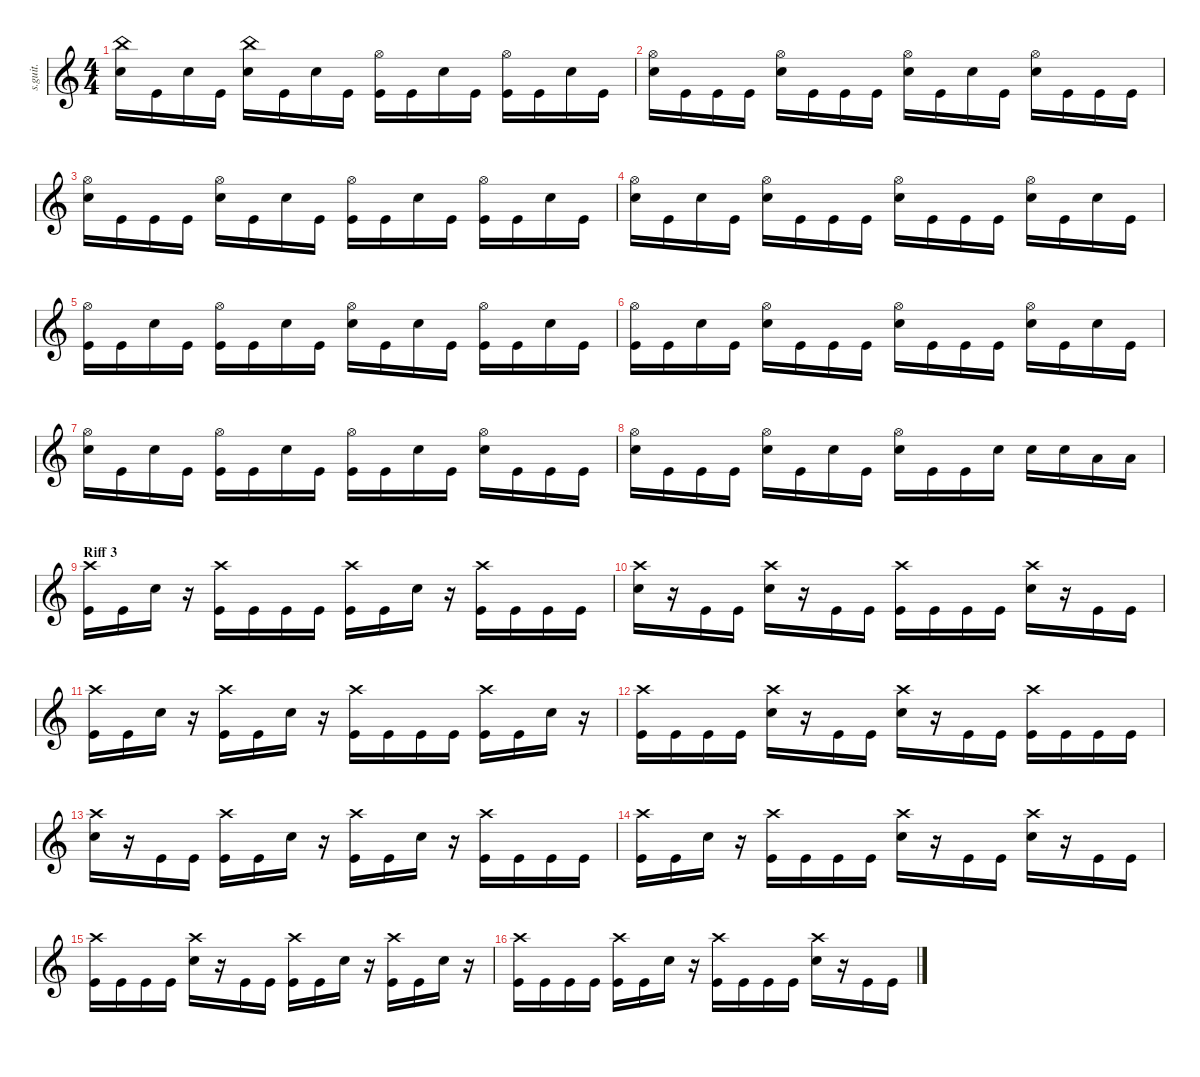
\defaultSystemsLayout 4
\hideDynamics
\bracketExtendMode nobrackets
\track ("Drumkit" "s.guit.") {instrument percussion}
\staff {score}
\articulation defaults
\ts (4 4)
\tempo (133 hide)
\clef g2
\ks c
("China (hit)" "Snare (hit) 2").16{lyrics (0 "") lyrics (1 "") lyrics (2 "") lyrics (3 "") lyrics (4 "") dy f} "Kick (hit)".16{lyrics (0 "") lyrics (1 "") lyrics (2 "") lyrics (3 "") lyrics (4 "")} "Snare (hit) 2".16{lyrics (0 "") lyrics (1 "") lyrics (2 "") lyrics (3 "") lyrics (4 "")} "Kick (hit)".16{lyrics (0 "") lyrics (1 "") lyrics (2 "") lyrics (3 "") lyrics (4 "")} ("China (hit)" "Snare (hit) 2").16{lyrics (0 "") lyrics (1 "") lyrics (2 "") lyrics (3 "") lyrics (4 "")} "Kick (hit)".16{lyrics (0 "") lyrics (1 "") lyrics (2 "") lyrics (3 "") lyrics (4 "")} "Snare (hit) 2".16{lyrics (0 "") lyrics (1 "") lyrics (2 "") lyrics (3 "") lyrics (4 "")} "Kick (hit)".16{lyrics (0 "") lyrics (1 "") lyrics (2 "") lyrics (3 "") lyrics (4 "")} ("Hi-Hat (open)" "Kick (hit)").16{lyrics (0 "") lyrics (1 "") lyrics (2 "") lyrics (3 "") lyrics (4 "")} "Kick (hit)".16{lyrics (0 "") lyrics (1 "") lyrics (2 "") lyrics (3 "") lyrics (4 "")} "Snare (hit) 2".16{lyrics (0 "") lyrics (1 "") lyrics (2 "") lyrics (3 "") lyrics (4 "")} "Kick (hit)".16{lyrics (0 "") lyrics (1 "") lyrics (2 "") lyrics (3 "") lyrics (4 "")} ("Hi-Hat (open)" "Kick (hit)").16{lyrics (0 "") lyrics (1 "") lyrics (2 "") lyrics (3 "") lyrics (4 "")} "Kick (hit)".16{lyrics (0 "") lyrics (1 "") lyrics (2 "") lyrics (3 "") lyrics (4 "")} "Snare (hit) 2".16{lyrics (0 "") lyrics (1 "") lyrics (2 "") lyrics (3 "") lyrics (4 "")} "Kick (hit)".16{lyrics (0 "") lyrics (1 "") lyrics (2 "") lyrics (3 "") lyrics (4 "")} |
("Hi-Hat (open)" "Snare (hit) 2").16{lyrics (0 "") lyrics (1 "") lyrics (2 "") lyrics (3 "") lyrics (4 "")} "Kick (hit)".16{lyrics (0 "") lyrics (1 "") lyrics (2 "") lyrics (3 "") lyrics (4 "")} "Kick (hit)".16{lyrics (0 "") lyrics (1 "") lyrics (2 "") lyrics (3 "") lyrics (4 "")} "Kick (hit)".16{lyrics (0 "") lyrics (1 "") lyrics (2 "") lyrics (3 "") lyrics (4 "")} ("Hi-Hat (open)" "Snare (hit) 2").16{lyrics (0 "") lyrics (1 "") lyrics (2 "") lyrics (3 "") lyrics (4 "")} "Kick (hit)".16{lyrics (0 "") lyrics (1 "") lyrics (2 "") lyrics (3 "") lyrics (4 "")} "Kick (hit)".16{lyrics (0 "") lyrics (1 "") lyrics (2 "") lyrics (3 "") lyrics (4 "")} "Kick (hit)".16{lyrics (0 "") lyrics (1 "") lyrics (2 "") lyrics (3 "") lyrics (4 "")} ("Hi-Hat (open)" "Snare (hit) 2").16{lyrics (0 "") lyrics (1 "") lyrics (2 "") lyrics (3 "") lyrics (4 "")} "Kick (hit)".16{lyrics (0 "") lyrics (1 "") lyrics (2 "") lyrics (3 "") lyrics (4 "")} "Snare (hit) 2".16{lyrics (0 "") lyrics (1 "") lyrics (2 "") lyrics (3 "") lyrics (4 "")} "Kick (hit)".16{lyrics (0 "") lyrics (1 "") lyrics (2 "") lyrics (3 "") lyrics (4 "")} ("Hi-Hat (open)" "Snare (hit) 2").16{lyrics (0 "") lyrics (1 "") lyrics (2 "") lyrics (3 "") lyrics (4 "")} "Kick (hit)".16{lyrics (0 "") lyrics (1 "") lyrics (2 "") lyrics (3 "") lyrics (4 "")} "Kick (hit)".16{lyrics (0 "") lyrics (1 "") lyrics (2 "") lyrics (3 "") lyrics (4 "")} "Kick (hit)".16{lyrics (0 "") lyrics (1 "") lyrics (2 "") lyrics (3 "") lyrics (4 "")} |
("Hi-Hat (open)" "Snare (hit) 2").16{lyrics (0 "") lyrics (1 "") lyrics (2 "") lyrics (3 "") lyrics (4 "")} "Kick (hit)".16{lyrics (0 "") lyrics (1 "") lyrics (2 "") lyrics (3 "") lyrics (4 "")} "Kick (hit)".16{lyrics (0 "") lyrics (1 "") lyrics (2 "") lyrics (3 "") lyrics (4 "")} "Kick (hit)".16{lyrics (0 "") lyrics (1 "") lyrics (2 "") lyrics (3 "") lyrics (4 "")} ("Hi-Hat (open)" "Snare (hit) 2").16{lyrics (0 "") lyrics (1 "") lyrics (2 "") lyrics (3 "") lyrics (4 "")} "Kick (hit)".16{lyrics (0 "") lyrics (1 "") lyrics (2 "") lyrics (3 "") lyrics (4 "")} "Snare (hit) 2".16{lyrics (0 "") lyrics (1 "") lyrics (2 "") lyrics (3 "") lyrics (4 "")} "Kick (hit)".16{lyrics (0 "") lyrics (1 "") lyrics (2 "") lyrics (3 "") lyrics (4 "")} ("Hi-Hat (open)" "Kick (hit)").16{lyrics (0 "") lyrics (1 "") lyrics (2 "") lyrics (3 "") lyrics (4 "")} "Kick (hit)".16{lyrics (0 "") lyrics (1 "") lyrics (2 "") lyrics (3 "") lyrics (4 "")} "Snare (hit) 2".16{lyrics (0 "") lyrics (1 "") lyrics (2 "") lyrics (3 "") lyrics (4 "")} "Kick (hit)".16{lyrics (0 "") lyrics (1 "") lyrics (2 "") lyrics (3 "") lyrics (4 "")} ("Hi-Hat (open)" "Kick (hit)").16{lyrics (0 "") lyrics (1 "") lyrics (2 "") lyrics (3 "") lyrics (4 "")} "Kick (hit)".16{lyrics (0 "") lyrics (1 "") lyrics (2 "") lyrics (3 "") lyrics (4 "")} "Snare (hit) 2".16{lyrics (0 "") lyrics (1 "") lyrics (2 "") lyrics (3 "") lyrics (4 "")} "Kick (hit)".16{lyrics (0 "") lyrics (1 "") lyrics (2 "") lyrics (3 "") lyrics (4 "")} |
("Hi-Hat (open)" "Snare (hit) 2").16{lyrics (0 "") lyrics (1 "") lyrics (2 "") lyrics (3 "") lyrics (4 "")} "Kick (hit)".16{lyrics (0 "") lyrics (1 "") lyrics (2 "") lyrics (3 "") lyrics (4 "")} "Snare (hit) 2".16{lyrics (0 "") lyrics (1 "") lyrics (2 "") lyrics (3 "") lyrics (4 "")} "Kick (hit)".16{lyrics (0 "") lyrics (1 "") lyrics (2 "") lyrics (3 "") lyrics (4 "")} ("Hi-Hat (open)" "Snare (hit) 2").16{lyrics (0 "") lyrics (1 "") lyrics (2 "") lyrics (3 "") lyrics (4 "")} "Kick (hit)".16{lyrics (0 "") lyrics (1 "") lyrics (2 "") lyrics (3 "") lyrics (4 "")} "Kick (hit)".16{lyrics (0 "") lyrics (1 "") lyrics (2 "") lyrics (3 "") lyrics (4 "")} "Kick (hit)".16{lyrics (0 "") lyrics (1 "") lyrics (2 "") lyrics (3 "") lyrics (4 "")} ("Hi-Hat (open)" "Snare (hit) 2").16{lyrics (0 "") lyrics (1 "") lyrics (2 "") lyrics (3 "") lyrics (4 "")} "Kick (hit)".16{lyrics (0 "") lyrics (1 "") lyrics (2 "") lyrics (3 "") lyrics (4 "")} "Kick (hit)".16{lyrics (0 "") lyrics (1 "") lyrics (2 "") lyrics (3 "") lyrics (4 "")} "Kick (hit)".16{lyrics (0 "") lyrics (1 "") lyrics (2 "") lyrics (3 "") lyrics (4 "")} ("Hi-Hat (open)" "Snare (hit) 2").16{lyrics (0 "") lyrics (1 "") lyrics (2 "") lyrics (3 "") lyrics (4 "")} "Kick (hit)".16{lyrics (0 "") lyrics (1 "") lyrics (2 "") lyrics (3 "") lyrics (4 "")} "Snare (hit) 2".16{lyrics (0 "") lyrics (1 "") lyrics (2 "") lyrics (3 "") lyrics (4 "")} "Kick (hit)".16{lyrics (0 "") lyrics (1 "") lyrics (2 "") lyrics (3 "") lyrics (4 "")} |
("Hi-Hat (open)" "Kick (hit)").16{lyrics (0 "") lyrics (1 "") lyrics (2 "") lyrics (3 "") lyrics (4 "")} "Kick (hit)".16{lyrics (0 "") lyrics (1 "") lyrics (2 "") lyrics (3 "") lyrics (4 "")} "Snare (hit) 2".16{lyrics (0 "") lyrics (1 "") lyrics (2 "") lyrics (3 "") lyrics (4 "")} "Kick (hit)".16{lyrics (0 "") lyrics (1 "") lyrics (2 "") lyrics (3 "") lyrics (4 "")} ("Hi-Hat (open)" "Kick (hit)").16{lyrics (0 "") lyrics (1 "") lyrics (2 "") lyrics (3 "") lyrics (4 "")} "Kick (hit)".16{lyrics (0 "") lyrics (1 "") lyrics (2 "") lyrics (3 "") lyrics (4 "")} "Snare (hit) 2".16{lyrics (0 "") lyrics (1 "") lyrics (2 "") lyrics (3 "") lyrics (4 "")} "Kick (hit)".16{lyrics (0 "") lyrics (1 "") lyrics (2 "") lyrics (3 "") lyrics (4 "")} ("Hi-Hat (open)" "Snare (hit) 2").16{lyrics (0 "") lyrics (1 "") lyrics (2 "") lyrics (3 "") lyrics (4 "")} "Kick (hit)".16{lyrics (0 "") lyrics (1 "") lyrics (2 "") lyrics (3 "") lyrics (4 "")} "Snare (hit) 2".16{lyrics (0 "") lyrics (1 "") lyrics (2 "") lyrics (3 "") lyrics (4 "")} "Kick (hit)".16{lyrics (0 "") lyrics (1 "") lyrics (2 "") lyrics (3 "") lyrics (4 "")} ("Hi-Hat (open)" "Kick (hit)").16{lyrics (0 "") lyrics (1 "") lyrics (2 "") lyrics (3 "") lyrics (4 "")} "Kick (hit)".16{lyrics (0 "") lyrics (1 "") lyrics (2 "") lyrics (3 "") lyrics (4 "")} "Snare (hit) 2".16{lyrics (0 "") lyrics (1 "") lyrics (2 "") lyrics (3 "") lyrics (4 "")} "Kick (hit)".16{lyrics (0 "") lyrics (1 "") lyrics (2 "") lyrics (3 "") lyrics (4 "")} |
("Hi-Hat (open)" "Kick (hit)").16{lyrics (0 "") lyrics (1 "") lyrics (2 "") lyrics (3 "") lyrics (4 "")} "Kick (hit)".16{lyrics (0 "") lyrics (1 "") lyrics (2 "") lyrics (3 "") lyrics (4 "")} "Snare (hit) 2".16{lyrics (0 "") lyrics (1 "") lyrics (2 "") lyrics (3 "") lyrics (4 "")} "Kick (hit)".16{lyrics (0 "") lyrics (1 "") lyrics (2 "") lyrics (3 "") lyrics (4 "")} ("Hi-Hat (open)" "Snare (hit) 2").16{lyrics (0 "") lyrics (1 "") lyrics (2 "") lyrics (3 "") lyrics (4 "")} "Kick (hit)".16{lyrics (0 "") lyrics (1 "") lyrics (2 "") lyrics (3 "") lyrics (4 "")} "Kick (hit)".16{lyrics (0 "") lyrics (1 "") lyrics (2 "") lyrics (3 "") lyrics (4 "")} "Kick (hit)".16{lyrics (0 "") lyrics (1 "") lyrics (2 "") lyrics (3 "") lyrics (4 "")} ("Hi-Hat (open)" "Snare (hit) 2").16{lyrics (0 "") lyrics (1 "") lyrics (2 "") lyrics (3 "") lyrics (4 "")} "Kick (hit)".16{lyrics (0 "") lyrics (1 "") lyrics (2 "") lyrics (3 "") lyrics (4 "")} "Kick (hit)".16{lyrics (0 "") lyrics (1 "") lyrics (2 "") lyrics (3 "") lyrics (4 "")} "Kick (hit)".16{lyrics (0 "") lyrics (1 "") lyrics (2 "") lyrics (3 "") lyrics (4 "")} ("Hi-Hat (open)" "Snare (hit) 2").16{lyrics (0 "") lyrics (1 "") lyrics (2 "") lyrics (3 "") lyrics (4 "")} "Kick (hit)".16{lyrics (0 "") lyrics (1 "") lyrics (2 "") lyrics (3 "") lyrics (4 "")} "Snare (hit) 2".16{lyrics (0 "") lyrics (1 "") lyrics (2 "") lyrics (3 "") lyrics (4 "")} "Kick (hit)".16{lyrics (0 "") lyrics (1 "") lyrics (2 "") lyrics (3 "") lyrics (4 "")} |
("Hi-Hat (open)" "Snare (hit) 2").16{lyrics (0 "") lyrics (1 "") lyrics (2 "") lyrics (3 "") lyrics (4 "")} "Kick (hit)".16{lyrics (0 "") lyrics (1 "") lyrics (2 "") lyrics (3 "") lyrics (4 "")} "Snare (hit) 2".16{lyrics (0 "") lyrics (1 "") lyrics (2 "") lyrics (3 "") lyrics (4 "")} "Kick (hit)".16{lyrics (0 "") lyrics (1 "") lyrics (2 "") lyrics (3 "") lyrics (4 "")} ("Hi-Hat (open)" "Kick (hit)").16{lyrics (0 "") lyrics (1 "") lyrics (2 "") lyrics (3 "") lyrics (4 "")} "Kick (hit)".16{lyrics (0 "") lyrics (1 "") lyrics (2 "") lyrics (3 "") lyrics (4 "")} "Snare (hit) 2".16{lyrics (0 "") lyrics (1 "") lyrics (2 "") lyrics (3 "") lyrics (4 "")} "Kick (hit)".16{lyrics (0 "") lyrics (1 "") lyrics (2 "") lyrics (3 "") lyrics (4 "")} ("Hi-Hat (open)" "Kick (hit)").16{lyrics (0 "") lyrics (1 "") lyrics (2 "") lyrics (3 "") lyrics (4 "")} "Kick (hit)".16{lyrics (0 "") lyrics (1 "") lyrics (2 "") lyrics (3 "") lyrics (4 "")} "Snare (hit) 2".16{lyrics (0 "") lyrics (1 "") lyrics (2 "") lyrics (3 "") lyrics (4 "")} "Kick (hit)".16{lyrics (0 "") lyrics (1 "") lyrics (2 "") lyrics (3 "") lyrics (4 "")} ("Hi-Hat (open)" "Snare (hit) 2").16{lyrics (0 "") lyrics (1 "") lyrics (2 "") lyrics (3 "") lyrics (4 "")} "Kick (hit)".16{lyrics (0 "") lyrics (1 "") lyrics (2 "") lyrics (3 "") lyrics (4 "")} "Kick (hit)".16{lyrics (0 "") lyrics (1 "") lyrics (2 "") lyrics (3 "") lyrics (4 "")} "Kick (hit)".16{lyrics (0 "") lyrics (1 "") lyrics (2 "") lyrics (3 "") lyrics (4 "")} |
("Hi-Hat (open)" "Snare (hit) 2").16{lyrics (0 "") lyrics (1 "") lyrics (2 "") lyrics (3 "") lyrics (4 "")} "Kick (hit)".16{lyrics (0 "") lyrics (1 "") lyrics (2 "") lyrics (3 "") lyrics (4 "")} "Kick (hit)".16{lyrics (0 "") lyrics (1 "") lyrics (2 "") lyrics (3 "") lyrics (4 "")} "Kick (hit)".16{lyrics (0 "") lyrics (1 "") lyrics (2 "") lyrics (3 "") lyrics (4 "")} ("Hi-Hat (open)" "Snare (hit) 2").16{lyrics (0 "") lyrics (1 "") lyrics (2 "") lyrics (3 "") lyrics (4 "")} "Kick (hit)".16{lyrics (0 "") lyrics (1 "") lyrics (2 "") lyrics (3 "") lyrics (4 "")} "Snare (hit) 2".16{lyrics (0 "") lyrics (1 "") lyrics (2 "") lyrics (3 "") lyrics (4 "")} "Kick (hit)".16{lyrics (0 "") lyrics (1 "") lyrics (2 "") lyrics (3 "") lyrics (4 "")} ("Hi-Hat (open)" "Snare (hit) 2").16{lyrics (0 "") lyrics (1 "") lyrics (2 "") lyrics (3 "") lyrics (4 "")} "Kick (hit)".16{lyrics (0 "") lyrics (1 "") lyrics (2 "") lyrics (3 "") lyrics (4 "")} "Kick (hit)".16{lyrics (0 "") lyrics (1 "") lyrics (2 "") lyrics (3 "") lyrics (4 "")} "Snare (hit) 2".16{lyrics (0 "") lyrics (1 "") lyrics (2 "") lyrics (3 "") lyrics (4 "")} "Snare (hit) 2".16{lyrics (0 "") lyrics (1 "") lyrics (2 "") lyrics (3 "") lyrics (4 "")} "Snare (hit) 2".16{lyrics (0 "") lyrics (1 "") lyrics (2 "") lyrics (3 "") lyrics (4 "")} "Low Tom (hit)".16{lyrics (0 "") lyrics (1 "") lyrics (2 "") lyrics (3 "") lyrics (4 "")} "Low Tom (hit)".16{lyrics (0 "") lyrics (1 "") lyrics (2 "") lyrics (3 "") lyrics (4 "")} |
\section ("" "Riff 3")
("Crash high (hit)" "Kick (hit)").16{lyrics (0 "") lyrics (1 "") lyrics (2 "") lyrics (3 "") lyrics (4 "")} "Kick (hit)".16{lyrics (0 "") lyrics (1 "") lyrics (2 "") lyrics (3 "") lyrics (4 "")} "Snare (hit) 2".16{lyrics (0 "") lyrics (1 "") lyrics (2 "") lyrics (3 "") lyrics (4 "")} r.16 ("Crash high (hit)" "Kick (hit)").16{lyrics (0 "") lyrics (1 "") lyrics (2 "") lyrics (3 "") lyrics (4 "")} "Kick (hit)".16{lyrics (0 "") lyrics (1 "") lyrics (2 "") lyrics (3 "") lyrics (4 "")} "Kick (hit)".16{lyrics (0 "") lyrics (1 "") lyrics (2 "") lyrics (3 "") lyrics (4 "")} "Kick (hit)".16{lyrics (0 "") lyrics (1 "") lyrics (2 "") lyrics (3 "") lyrics (4 "")} ("Crash high (hit)" "Kick (hit)").16{lyrics (0 "") lyrics (1 "") lyrics (2 "") lyrics (3 "") lyrics (4 "")} "Kick (hit)".16{lyrics (0 "") lyrics (1 "") lyrics (2 "") lyrics (3 "") lyrics (4 "")} "Snare (hit) 2".16{lyrics (0 "") lyrics (1 "") lyrics (2 "") lyrics (3 "") lyrics (4 "")} r.16 ("Crash high (hit)" "Kick (hit)").16{lyrics (0 "") lyrics (1 "") lyrics (2 "") lyrics (3 "") lyrics (4 "")} "Kick (hit)".16{lyrics (0 "") lyrics (1 "") lyrics (2 "") lyrics (3 "") lyrics (4 "")} "Kick (hit)".16{lyrics (0 "") lyrics (1 "") lyrics (2 "") lyrics (3 "") lyrics (4 "")} "Kick (hit)".16{lyrics (0 "") lyrics (1 "") lyrics (2 "") lyrics (3 "") lyrics (4 "")} |
("Crash high (hit)" "Snare (hit) 2").16{lyrics (0 "") lyrics (1 "") lyrics (2 "") lyrics (3 "") lyrics (4 "")} r.16 "Kick (hit)".16{lyrics (0 "") lyrics (1 "") lyrics (2 "") lyrics (3 "") lyrics (4 "")} "Kick (hit)".16{lyrics (0 "") lyrics (1 "") lyrics (2 "") lyrics (3 "") lyrics (4 "")} ("Crash high (hit)" "Snare (hit) 2").16{lyrics (0 "") lyrics (1 "") lyrics (2 "") lyrics (3 "") lyrics (4 "")} r.16 "Kick (hit)".16{lyrics (0 "") lyrics (1 "") lyrics (2 "") lyrics (3 "") lyrics (4 "")} "Kick (hit)".16{lyrics (0 "") lyrics (1 "") lyrics (2 "") lyrics (3 "") lyrics (4 "")} ("Crash high (hit)" "Kick (hit)").16{lyrics (0 "") lyrics (1 "") lyrics (2 "") lyrics (3 "") lyrics (4 "")} "Kick (hit)".16{lyrics (0 "") lyrics (1 "") lyrics (2 "") lyrics (3 "") lyrics (4 "")} "Kick (hit)".16{lyrics (0 "") lyrics (1 "") lyrics (2 "") lyrics (3 "") lyrics (4 "")} "Kick (hit)".16{lyrics (0 "") lyrics (1 "") lyrics (2 "") lyrics (3 "") lyrics (4 "")} ("Crash high (hit)" "Snare (hit) 2").16{lyrics (0 "") lyrics (1 "") lyrics (2 "") lyrics (3 "") lyrics (4 "")} r.16 "Kick (hit)".16{lyrics (0 "") lyrics (1 "") lyrics (2 "") lyrics (3 "") lyrics (4 "")} "Kick (hit)".16{lyrics (0 "") lyrics (1 "") lyrics (2 "") lyrics (3 "") lyrics (4 "")} |
("Crash high (hit)" "Kick (hit)").16{lyrics (0 "") lyrics (1 "") lyrics (2 "") lyrics (3 "") lyrics (4 "")} "Kick (hit)".16{lyrics (0 "") lyrics (1 "") lyrics (2 "") lyrics (3 "") lyrics (4 "")} "Snare (hit) 2".16{lyrics (0 "") lyrics (1 "") lyrics (2 "") lyrics (3 "") lyrics (4 "")} r.16 ("Crash high (hit)" "Kick (hit)").16{lyrics (0 "") lyrics (1 "") lyrics (2 "") lyrics (3 "") lyrics (4 "")} "Kick (hit)".16{lyrics (0 "") lyrics (1 "") lyrics (2 "") lyrics (3 "") lyrics (4 "")} "Snare (hit) 2".16{lyrics (0 "") lyrics (1 "") lyrics (2 "") lyrics (3 "") lyrics (4 "")} r.16 ("Crash high (hit)" "Kick (hit)").16{lyrics (0 "") lyrics (1 "") lyrics (2 "") lyrics (3 "") lyrics (4 "")} "Kick (hit)".16{lyrics (0 "") lyrics (1 "") lyrics (2 "") lyrics (3 "") lyrics (4 "")} "Kick (hit)".16{lyrics (0 "") lyrics (1 "") lyrics (2 "") lyrics (3 "") lyrics (4 "")} "Kick (hit)".16{lyrics (0 "") lyrics (1 "") lyrics (2 "") lyrics (3 "") lyrics (4 "")} ("Crash high (hit)" "Kick (hit)").16{lyrics (0 "") lyrics (1 "") lyrics (2 "") lyrics (3 "") lyrics (4 "")} "Kick (hit)".16{lyrics (0 "") lyrics (1 "") lyrics (2 "") lyrics (3 "") lyrics (4 "")} "Snare (hit) 2".16{lyrics (0 "") lyrics (1 "") lyrics (2 "") lyrics (3 "") lyrics (4 "")} r.16 |
("Crash high (hit)" "Kick (hit)").16{lyrics (0 "") lyrics (1 "") lyrics (2 "") lyrics (3 "") lyrics (4 "")} "Kick (hit)".16{lyrics (0 "") lyrics (1 "") lyrics (2 "") lyrics (3 "") lyrics (4 "")} "Kick (hit)".16{lyrics (0 "") lyrics (1 "") lyrics (2 "") lyrics (3 "") lyrics (4 "")} "Kick (hit)".16{lyrics (0 "") lyrics (1 "") lyrics (2 "") lyrics (3 "") lyrics (4 "")} ("Crash high (hit)" "Snare (hit) 2").16{lyrics (0 "") lyrics (1 "") lyrics (2 "") lyrics (3 "") lyrics (4 "")} r.16 "Kick (hit)".16{lyrics (0 "") lyrics (1 "") lyrics (2 "") lyrics (3 "") lyrics (4 "")} "Kick (hit)".16{lyrics (0 "") lyrics (1 "") lyrics (2 "") lyrics (3 "") lyrics (4 "")} ("Crash high (hit)" "Snare (hit) 2").16{lyrics (0 "") lyrics (1 "") lyrics (2 "") lyrics (3 "") lyrics (4 "")} r.16 "Kick (hit)".16{lyrics (0 "") lyrics (1 "") lyrics (2 "") lyrics (3 "") lyrics (4 "")} "Kick (hit)".16{lyrics (0 "") lyrics (1 "") lyrics (2 "") lyrics (3 "") lyrics (4 "")} ("Crash high (hit)" "Kick (hit)").16{lyrics (0 "") lyrics (1 "") lyrics (2 "") lyrics (3 "") lyrics (4 "")} "Kick (hit)".16{lyrics (0 "") lyrics (1 "") lyrics (2 "") lyrics (3 "") lyrics (4 "")} "Kick (hit)".16{lyrics (0 "") lyrics (1 "") lyrics (2 "") lyrics (3 "") lyrics (4 "")} "Kick (hit)".16{lyrics (0 "") lyrics (1 "") lyrics (2 "") lyrics (3 "") lyrics (4 "")} |
("Crash high (hit)" "Snare (hit) 2").16{lyrics (0 "") lyrics (1 "") lyrics (2 "") lyrics (3 "") lyrics (4 "")} r.16 "Kick (hit)".16{lyrics (0 "") lyrics (1 "") lyrics (2 "") lyrics (3 "") lyrics (4 "")} "Kick (hit)".16{lyrics (0 "") lyrics (1 "") lyrics (2 "") lyrics (3 "") lyrics (4 "")} ("Crash high (hit)" "Kick (hit)").16{lyrics (0 "") lyrics (1 "") lyrics (2 "") lyrics (3 "") lyrics (4 "")} "Kick (hit)".16{lyrics (0 "") lyrics (1 "") lyrics (2 "") lyrics (3 "") lyrics (4 "")} "Snare (hit) 2".16{lyrics (0 "") lyrics (1 "") lyrics (2 "") lyrics (3 "") lyrics (4 "")} r.16 ("Crash high (hit)" "Kick (hit)").16{lyrics (0 "") lyrics (1 "") lyrics (2 "") lyrics (3 "") lyrics (4 "")} "Kick (hit)".16{lyrics (0 "") lyrics (1 "") lyrics (2 "") lyrics (3 "") lyrics (4 "")} "Snare (hit) 2".16{lyrics (0 "") lyrics (1 "") lyrics (2 "") lyrics (3 "") lyrics (4 "")} r.16 ("Crash high (hit)" "Kick (hit)").16{lyrics (0 "") lyrics (1 "") lyrics (2 "") lyrics (3 "") lyrics (4 "")} "Kick (hit)".16{lyrics (0 "") lyrics (1 "") lyrics (2 "") lyrics (3 "") lyrics (4 "")} "Kick (hit)".16{lyrics (0 "") lyrics (1 "") lyrics (2 "") lyrics (3 "") lyrics (4 "")} "Kick (hit)".16{lyrics (0 "") lyrics (1 "") lyrics (2 "") lyrics (3 "") lyrics (4 "")} |
("Crash high (hit)" "Kick (hit)").16{lyrics (0 "") lyrics (1 "") lyrics (2 "") lyrics (3 "") lyrics (4 "")} "Kick (hit)".16{lyrics (0 "") lyrics (1 "") lyrics (2 "") lyrics (3 "") lyrics (4 "")} "Snare (hit) 2".16{lyrics (0 "") lyrics (1 "") lyrics (2 "") lyrics (3 "") lyrics (4 "")} r.16 ("Crash high (hit)" "Kick (hit)").16{lyrics (0 "") lyrics (1 "") lyrics (2 "") lyrics (3 "") lyrics (4 "")} "Kick (hit)".16{lyrics (0 "") lyrics (1 "") lyrics (2 "") lyrics (3 "") lyrics (4 "")} "Kick (hit)".16{lyrics (0 "") lyrics (1 "") lyrics (2 "") lyrics (3 "") lyrics (4 "")} "Kick (hit)".16{lyrics (0 "") lyrics (1 "") lyrics (2 "") lyrics (3 "") lyrics (4 "")} ("Crash high (hit)" "Snare (hit) 2").16{lyrics (0 "") lyrics (1 "") lyrics (2 "") lyrics (3 "") lyrics (4 "")} r.16 "Kick (hit)".16{lyrics (0 "") lyrics (1 "") lyrics (2 "") lyrics (3 "") lyrics (4 "")} "Kick (hit)".16{lyrics (0 "") lyrics (1 "") lyrics (2 "") lyrics (3 "") lyrics (4 "")} ("Crash high (hit)" "Snare (hit) 2").16{lyrics (0 "") lyrics (1 "") lyrics (2 "") lyrics (3 "") lyrics (4 "")} r.16 "Kick (hit)".16{lyrics (0 "") lyrics (1 "") lyrics (2 "") lyrics (3 "") lyrics (4 "")} "Kick (hit)".16{lyrics (0 "") lyrics (1 "") lyrics (2 "") lyrics (3 "") lyrics (4 "")} |
("Crash high (hit)" "Kick (hit)").16{lyrics (0 "") lyrics (1 "") lyrics (2 "") lyrics (3 "") lyrics (4 "")} "Kick (hit)".16{lyrics (0 "") lyrics (1 "") lyrics (2 "") lyrics (3 "") lyrics (4 "")} "Kick (hit)".16{lyrics (0 "") lyrics (1 "") lyrics (2 "") lyrics (3 "") lyrics (4 "")} "Kick (hit)".16{lyrics (0 "") lyrics (1 "") lyrics (2 "") lyrics (3 "") lyrics (4 "")} ("Crash high (hit)" "Snare (hit) 2").16{lyrics (0 "") lyrics (1 "") lyrics (2 "") lyrics (3 "") lyrics (4 "")} r.16 "Kick (hit)".16{lyrics (0 "") lyrics (1 "") lyrics (2 "") lyrics (3 "") lyrics (4 "")} "Kick (hit)".16{lyrics (0 "") lyrics (1 "") lyrics (2 "") lyrics (3 "") lyrics (4 "")} ("Crash high (hit)" "Kick (hit)").16{lyrics (0 "") lyrics (1 "") lyrics (2 "") lyrics (3 "") lyrics (4 "")} "Kick (hit)".16{lyrics (0 "") lyrics (1 "") lyrics (2 "") lyrics (3 "") lyrics (4 "")} "Snare (hit) 2".16{lyrics (0 "") lyrics (1 "") lyrics (2 "") lyrics (3 "") lyrics (4 "")} r.16 ("Crash high (hit)" "Kick (hit)").16{lyrics (0 "") lyrics (1 "") lyrics (2 "") lyrics (3 "") lyrics (4 "")} "Kick (hit)".16{lyrics (0 "") lyrics (1 "") lyrics (2 "") lyrics (3 "") lyrics (4 "")} "Snare (hit) 2".16{lyrics (0 "") lyrics (1 "") lyrics (2 "") lyrics (3 "") lyrics (4 "")} r.16 |
("Crash high (hit)" "Kick (hit)").16{lyrics (0 "") lyrics (1 "") lyrics (2 "") lyrics (3 "") lyrics (4 "")} "Kick (hit)".16{lyrics (0 "") lyrics (1 "") lyrics (2 "") lyrics (3 "") lyrics (4 "")} "Kick (hit)".16{lyrics (0 "") lyrics (1 "") lyrics (2 "") lyrics (3 "") lyrics (4 "")} "Kick (hit)".16{lyrics (0 "") lyrics (1 "") lyrics (2 "") lyrics (3 "") lyrics (4 "")} ("Crash high (hit)" "Kick (hit)").16{lyrics (0 "") lyrics (1 "") lyrics (2 "") lyrics (3 "") lyrics (4 "")} "Kick (hit)".16{lyrics (0 "") lyrics (1 "") lyrics (2 "") lyrics (3 "") lyrics (4 "")} "Snare (hit) 2".16{lyrics (0 "") lyrics (1 "") lyrics (2 "") lyrics (3 "") lyrics (4 "")} r.16 ("Crash high (hit)" "Kick (hit)").16{lyrics (0 "") lyrics (1 "") lyrics (2 "") lyrics (3 "") lyrics (4 "")} "Kick (hit)".16{lyrics (0 "") lyrics (1 "") lyrics (2 "") lyrics (3 "") lyrics (4 "")} "Kick (hit)".16{lyrics (0 "") lyrics (1 "") lyrics (2 "") lyrics (3 "") lyrics (4 "")} "Kick (hit)".16{lyrics (0 "") lyrics (1 "") lyrics (2 "") lyrics (3 "") lyrics (4 "")} ("Crash high (hit)" "Snare (hit) 2").16{lyrics (0 "") lyrics (1 "") lyrics (2 "") lyrics (3 "") lyrics (4 "")} r.16 "Kick (hit)".16{lyrics (0 "") lyrics (1 "") lyrics (2 "") lyrics (3 "") lyrics (4 "")} "Kick (hit)".16{lyrics (0 "") lyrics (1 "") lyrics (2 "") lyrics (3 "") lyrics (4 "")}
